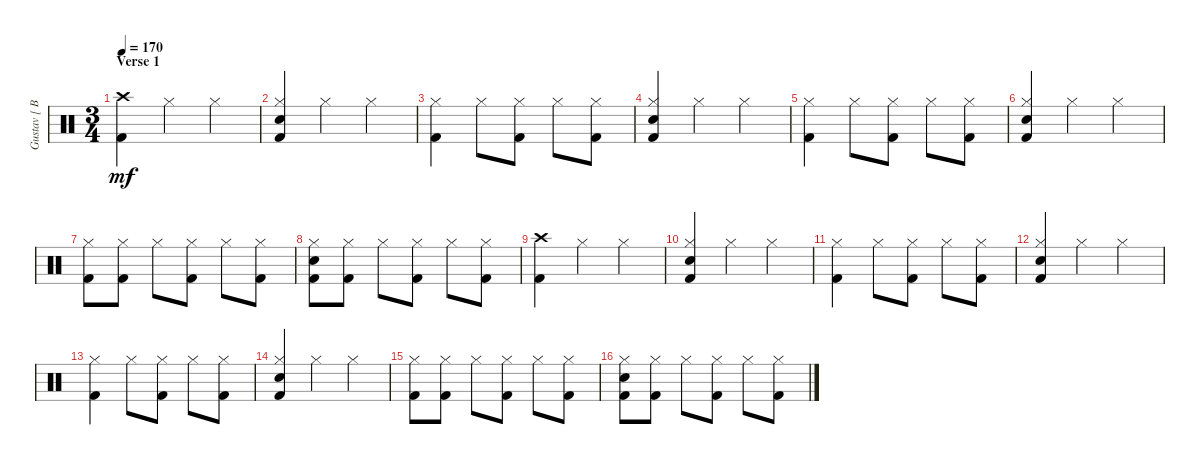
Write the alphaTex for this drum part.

\track ("Gustav [ Batterie ]" "Gustav [ B") {instrument percussion}
\staff {score}
\articulation defaults
\ts (3 4)
\section ("" "Verse 1")
\tempo 170
\clef neutral
\ks c
("Crash high (hit)" "Kick (hit) 2").4{dy mf} "Hi-Hat (closed)".4 "Hi-Hat (closed)".4 |
("Hi-Hat (closed)" "Snare (hit) 2" "Kick (hit) 2").4 "Hi-Hat (closed)".4 "Hi-Hat (closed)".4 |
("Hi-Hat (closed)" "Kick (hit) 2").4 "Hi-Hat (closed)".8 ("Hi-Hat (closed)" "Kick (hit) 2").8 "Hi-Hat (closed)".8 ("Hi-Hat (closed)" "Kick (hit) 2").8 |
("Hi-Hat (closed)" "Snare (hit) 2" "Kick (hit) 2").4 "Hi-Hat (closed)".4 "Hi-Hat (closed)".4 |
("Hi-Hat (closed)" "Kick (hit) 2").4 "Hi-Hat (closed)".8 ("Hi-Hat (closed)" "Kick (hit) 2").8 "Hi-Hat (closed)".8 ("Hi-Hat (closed)" "Kick (hit) 2").8 |
("Hi-Hat (closed)" "Snare (hit) 2" "Kick (hit) 2").4 "Hi-Hat (closed)".4 "Hi-Hat (closed)".4 |
("Hi-Hat (closed)" "Kick (hit) 2").8 ("Hi-Hat (closed)" "Kick (hit) 2").8 "Hi-Hat (closed)".8 ("Hi-Hat (closed)" "Kick (hit) 2").8 "Hi-Hat (closed)".8 ("Hi-Hat (closed)" "Kick (hit) 2").8 |
("Hi-Hat (closed)" "Snare (hit) 2" "Kick (hit) 2").8 ("Hi-Hat (closed)" "Kick (hit) 2").8 "Hi-Hat (closed)".8 ("Hi-Hat (closed)" "Kick (hit) 2").8 "Hi-Hat (closed)".8 ("Hi-Hat (closed)" "Kick (hit) 2").8 |
("Crash high (hit)" "Kick (hit) 2").4 "Hi-Hat (closed)".4 "Hi-Hat (closed)".4 |
("Hi-Hat (closed)" "Snare (hit) 2" "Kick (hit) 2").4 "Hi-Hat (closed)".4 "Hi-Hat (closed)".4 |
("Hi-Hat (closed)" "Kick (hit) 2").4 "Hi-Hat (closed)".8 ("Hi-Hat (closed)" "Kick (hit) 2").8 "Hi-Hat (closed)".8 ("Hi-Hat (closed)" "Kick (hit) 2").8 |
("Hi-Hat (closed)" "Snare (hit) 2" "Kick (hit) 2").4 "Hi-Hat (closed)".4 "Hi-Hat (closed)".4 |
("Hi-Hat (closed)" "Kick (hit) 2").4 "Hi-Hat (closed)".8 ("Hi-Hat (closed)" "Kick (hit) 2").8 "Hi-Hat (closed)".8 ("Hi-Hat (closed)" "Kick (hit) 2").8 |
("Hi-Hat (closed)" "Snare (hit) 2" "Kick (hit) 2").4 "Hi-Hat (closed)".4 "Hi-Hat (closed)".4 |
("Hi-Hat (closed)" "Kick (hit) 2").8 ("Hi-Hat (closed)" "Kick (hit) 2").8 "Hi-Hat (closed)".8 ("Hi-Hat (closed)" "Kick (hit) 2").8 "Hi-Hat (closed)".8 ("Hi-Hat (closed)" "Kick (hit) 2").8 |
("Hi-Hat (closed)" "Snare (hit) 2" "Kick (hit) 2").8 ("Hi-Hat (closed)" "Kick (hit) 2").8 "Hi-Hat (closed)".8 ("Hi-Hat (closed)" "Kick (hit) 2").8 "Hi-Hat (closed)".8 ("Hi-Hat (closed)" "Kick (hit) 2").8
